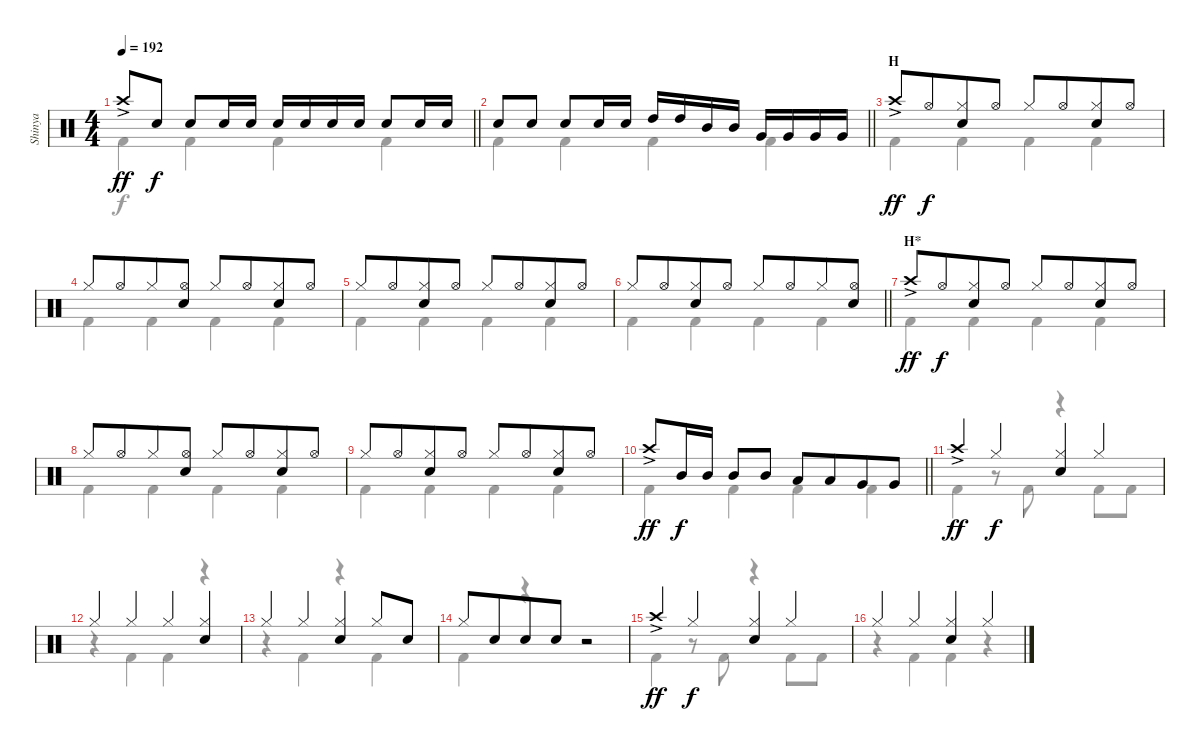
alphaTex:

\track ("Shinya" "Shinya") {instrument percussion}
\staff {score}
\articulation defaults
\voice
\ts (4 4)
\tempo 192
\clef neutral
\barLineRight lightlight
\ks c "Crash high (hit)"{ac}.8{dy ff} "Snare (hit) 2".8{dy f} "Snare (hit) 2".8 "Snare (hit) 2".16 "Snare (hit) 2".16 "Snare (hit) 2".16 "Snare (hit) 2".16 "Snare (hit) 2".16 "Snare (hit) 2".16 "Snare (hit) 2".8 "Snare (hit) 2".16 "Snare (hit) 2".16
|
\barLineRight lightlight "Snare (hit) 2".8 "Snare (hit) 2".8 "Snare (hit) 2".8 "Snare (hit) 2".16 "Snare (hit) 2".16 "High Tom (hit)".16 "High Tom (hit)".16 "Mid Tom (hit)".16 "Mid Tom (hit)".16 "Very Low Tom (hit)".16 "Very Low Tom (hit)".16 "Very Low Tom (hit)".16 "Very Low Tom (hit)".16
|
\section ("" "H")
"Crash high (hit)"{ac}.8{dy ff} "Hi-Hat (open)".8{dy f beam merge} ("Hi-Hat (closed)" "Snare (hit) 2").8 "Hi-Hat (open)".8 "Hi-Hat (closed)".8 "Hi-Hat (open)".8{beam merge} ("Hi-Hat (closed)" "Snare (hit) 2").8 "Hi-Hat (open)".8 |
"Hi-Hat (closed)".8 "Hi-Hat (open)".8{beam merge} "Hi-Hat (closed)".8 ("Hi-Hat (open)" "Snare (hit) 2").8 "Hi-Hat (closed)".8 "Hi-Hat (open)".8{beam merge} ("Hi-Hat (closed)" "Snare (hit) 2").8 "Hi-Hat (open)".8 |
"Hi-Hat (closed)".8 "Hi-Hat (open)".8{beam merge} ("Hi-Hat (closed)" "Snare (hit) 2").8 "Hi-Hat (open)".8 "Hi-Hat (closed)".8 "Hi-Hat (open)".8{beam merge} ("Hi-Hat (closed)" "Snare (hit) 2").8 "Hi-Hat (open)".8 |
\barLineRight lightlight "Hi-Hat (closed)".8 "Hi-Hat (open)".8{beam merge}
("Hi-Hat (closed)" "Snare (hit) 2").8 "Hi-Hat (open)".8 "Hi-Hat (closed)".8 "Hi-Hat (open)".8{beam merge} "Hi-Hat (closed)".8 ("Hi-Hat (open)" "Snare (hit) 2").8 |
\section ("" "H*")
"Crash high (hit)"{ac}.8{dy ff} "Hi-Hat (open)".8{dy f beam merge} ("Hi-Hat (closed)" "Snare (hit) 2").8 "Hi-Hat (open)".8 "Hi-Hat (closed)".8 "Hi-Hat (open)".8{beam merge} ("Hi-Hat (closed)" "Snare (hit) 2").8 "Hi-Hat (open)".8 |
"Hi-Hat (closed)".8 "Hi-Hat (open)".8{beam merge} "Hi-Hat (closed)".8 ("Hi-Hat (open)" "Snare (hit) 2").8 "Hi-Hat (closed)".8 "Hi-Hat (open)".8{beam merge} ("Hi-Hat (closed)" "Snare (hit) 2").8 "Hi-Hat (open)".8 |
"Hi-Hat (closed)".8 "Hi-Hat (open)".8{beam merge} ("Hi-Hat (closed)" "Snare (hit) 2").8 "Hi-Hat (open)".8 "Hi-Hat (closed)".8 "Hi-Hat (open)".8{beam merge} ("Hi-Hat (closed)" "Snare (hit) 2").8 "Hi-Hat (open)".8 |
\barLineRight lightlight "Crash high (hit)"{ac}.8{dy ff} "Mid Tom (hit)".16{dy f} "Mid Tom (hit)".16 "Mid Tom (hit)".8 "Mid Tom (hit)".8 "Low Tom (hit)".8 "Low Tom (hit)".8{beam merge} "Very Low Tom (hit)".8 "Very Low Tom (hit)".8
|
"Crash high (hit)"{ac}.4{dy ff} "Hi-Hat (closed)".4{dy f} ("Hi-Hat (closed)" "Snare (hit) 2").4 "Hi-Hat (closed)".4 |
"Hi-Hat (closed)".4 "Hi-Hat (closed)".4 "Hi-Hat (closed)".4 ("Hi-Hat (closed)" "Snare (hit) 2").4 |
"Hi-Hat (closed)".4 "Hi-Hat (closed)".4 ("Hi-Hat (closed)" "Snare (hit) 2").4 "Hi-Hat (closed)".8 "Snare (hit) 2".8 |
"Hi-Hat (closed)".8 "Snare (hit) 2".8{beam merge} "Snare (hit) 2".8 "Snare (hit) 2".8 r.2 |
"Crash high (hit)"{ac}.4{dy ff} "Hi-Hat (closed)".4{dy f} ("Hi-Hat (closed)" "Snare (hit) 2").4 "Hi-Hat (closed)".4 |
"Hi-Hat (closed)".4 "Hi-Hat (closed)".4 ("Hi-Hat (closed)" "Snare (hit) 2").4 "Hi-Hat (closed)".4
\voice
\clef neutral
\ottava regular
\simile none
\barLineRight lightlight
\ks c "Kick (hit) 2".4{dy f} "Kick (hit) 2".4 "Kick (hit) 2".4 "Kick (hit) 2".4
|
\barLineRight lightlight "Kick (hit) 2".4 "Kick (hit) 2".4 "Kick (hit) 2".4 "Kick (hit) 2".4
|
"Kick (hit) 2".4 "Kick (hit) 2".4 "Kick (hit) 2".4 "Kick (hit) 2".4 |
"Kick (hit) 2".4 "Kick (hit) 2".4 "Kick (hit) 2".4 "Kick (hit) 2".4 |
"Kick (hit) 2".4 "Kick (hit) 2".4 "Kick (hit) 2".4 "Kick (hit) 2".4 |
\barLineRight lightlight "Kick (hit) 2".4 "Kick (hit) 2".4 "Kick (hit) 2".4 "Kick (hit) 2".4
|
"Kick (hit) 2".4 "Kick (hit) 2".4 "Kick (hit) 2".4 "Kick (hit) 2".4 |
"Kick (hit) 2".4 "Kick (hit) 2".4 "Kick (hit) 2".4 "Kick (hit) 2".4 |
"Kick (hit) 2".4 "Kick (hit) 2".4 "Kick (hit) 2".4 "Kick (hit) 2".4 |
\barLineRight lightlight "Kick (hit) 2".4 "Kick (hit) 2".4 "Kick (hit) 2".4 "Kick (hit) 2".4
|
"Kick (hit) 2".4 r.8 "Kick (hit) 2".8 r.4 "Kick (hit) 2".8 "Kick (hit) 2".8 |
r.4 "Kick (hit) 2".4 "Kick (hit) 2".4 r.4 |
r.4 "Kick (hit) 2".4 r.4 "Kick (hit) 2".4 |
"Kick (hit) 2".4 r.4 r.2 |
"Kick (hit) 2".4 r.8 "Kick (hit) 2".8 r.4 "Kick (hit) 2".8 "Kick (hit) 2".8 |
r.4 "Kick (hit) 2".4 "Kick (hit) 2".4 r.4
